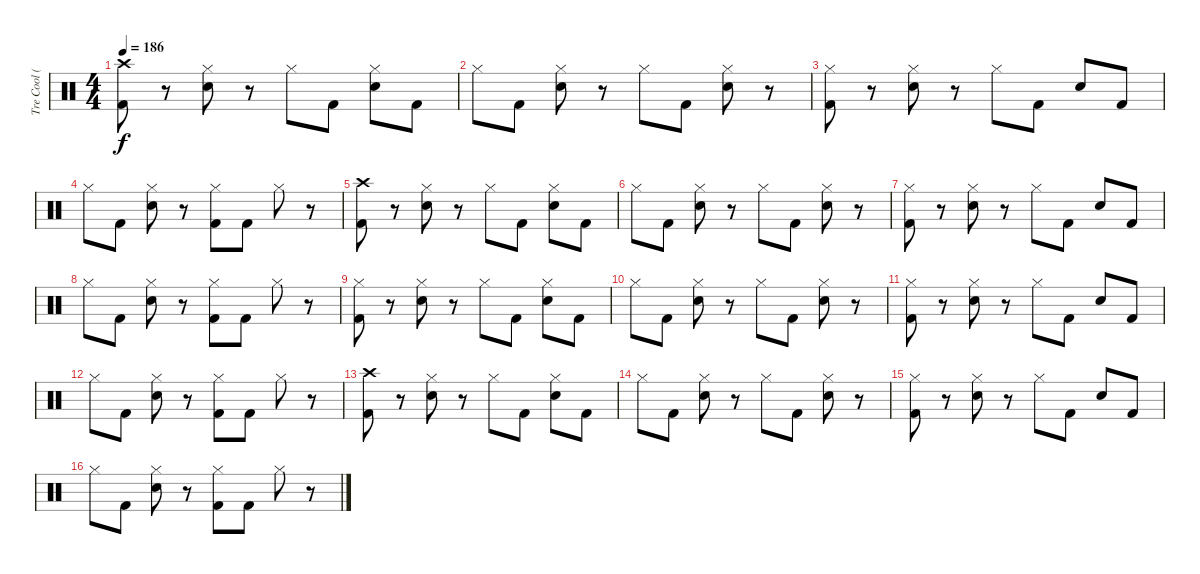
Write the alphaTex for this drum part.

\track ("Tre Cool (Drums)" "Tre Cool (") {instrument percussion}
\staff {score}
\articulation defaults
\ts (4 4)
\tempo 186
\clef neutral
\ks c
("Crash high (hit)" "Kick (hit) 2").8{dy f} r.8 ("Hi-Hat (closed)" "Snare (hit) 2").8 r.8 "Hi-Hat (closed)".8 "Kick (hit) 2".8 ("Hi-Hat (closed)" "Snare (hit) 2").8 "Kick (hit) 2".8 |
"Hi-Hat (closed)".8 "Kick (hit) 2".8 ("Hi-Hat (closed)" "Snare (hit) 2").8 r.8 "Hi-Hat (closed)".8 "Kick (hit) 2".8 ("Hi-Hat (closed)" "Snare (hit) 2").8 r.8 |
("Hi-Hat (closed)" "Kick (hit) 2").8 r.8 ("Hi-Hat (closed)" "Snare (hit) 2").8 r.8 "Hi-Hat (closed)".8 "Kick (hit) 2".8 "Snare (hit) 2".8 "Kick (hit) 2".8 |
"Hi-Hat (closed)".8 "Kick (hit) 2".8 ("Hi-Hat (closed)" "Snare (hit) 2").8 r.8 ("Hi-Hat (closed)" "Kick (hit) 2").8 "Kick (hit) 2".8 "Hi-Hat (closed)".8 r.8 |
("Kick (hit) 2" "Crash high (hit)").8 r.8 ("Snare (hit) 2" "Hi-Hat (closed)").8 r.8 "Hi-Hat (closed)".8 "Kick (hit) 2".8 ("Snare (hit) 2" "Hi-Hat (closed)").8 "Kick (hit) 2".8 |
"Hi-Hat (closed)".8 "Kick (hit) 2".8 ("Snare (hit) 2" "Hi-Hat (closed)").8 r.8 "Hi-Hat (closed)".8 "Kick (hit) 2".8 ("Snare (hit) 2" "Hi-Hat (closed)").8 r.8 |
("Kick (hit) 2" "Hi-Hat (closed)").8 r.8 ("Snare (hit) 2" "Hi-Hat (closed)").8 r.8 "Hi-Hat (closed)".8 "Kick (hit) 2".8 "Snare (hit) 2".8 "Kick (hit) 2".8 |
"Hi-Hat (closed)".8 "Kick (hit) 2".8 ("Snare (hit) 2" "Hi-Hat (closed)").8 r.8 ("Kick (hit) 2" "Hi-Hat (closed)").8 "Kick (hit) 2".8 "Hi-Hat (closed)".8 r.8 |
("Hi-Hat (closed)" "Kick (hit) 2").8 r.8 ("Hi-Hat (closed)" "Snare (hit) 2").8 r.8 "Hi-Hat (closed)".8 "Kick (hit) 2".8 ("Hi-Hat (closed)" "Snare (hit) 2").8 "Kick (hit) 2".8 |
"Hi-Hat (closed)".8 "Kick (hit) 2".8 ("Hi-Hat (closed)" "Snare (hit) 2").8 r.8 "Hi-Hat (closed)".8 "Kick (hit) 2".8 ("Hi-Hat (closed)" "Snare (hit) 2").8 r.8 |
("Hi-Hat (closed)" "Kick (hit) 2").8 r.8 ("Hi-Hat (closed)" "Snare (hit) 2").8 r.8 "Hi-Hat (closed)".8 "Kick (hit) 2".8 "Snare (hit) 2".8 "Kick (hit) 2".8 |
"Hi-Hat (closed)".8 "Kick (hit) 2".8 ("Hi-Hat (closed)" "Snare (hit) 2").8 r.8 ("Hi-Hat (closed)" "Kick (hit) 2").8 "Kick (hit) 2".8 "Hi-Hat (closed)".8 r.8 |
("Crash high (hit)" "Kick (hit) 2").8 r.8 ("Hi-Hat (closed)" "Snare (hit) 2").8 r.8 "Hi-Hat (closed)".8 "Kick (hit) 2".8 ("Hi-Hat (closed)" "Snare (hit) 2").8 "Kick (hit) 2".8 |
"Hi-Hat (closed)".8 "Kick (hit) 2".8 ("Hi-Hat (closed)" "Snare (hit) 2").8 r.8 "Hi-Hat (closed)".8 "Kick (hit) 2".8 ("Hi-Hat (closed)" "Snare (hit) 2").8 r.8 |
("Hi-Hat (closed)" "Kick (hit) 2").8 r.8 ("Hi-Hat (closed)" "Snare (hit) 2").8 r.8 "Hi-Hat (closed)".8 "Kick (hit) 2".8 "Snare (hit) 2".8 "Kick (hit) 2".8 |
"Hi-Hat (closed)".8 "Kick (hit) 2".8 ("Hi-Hat (closed)" "Snare (hit) 2").8 r.8 ("Hi-Hat (closed)" "Kick (hit) 2").8 "Kick (hit) 2".8 "Hi-Hat (closed)".8 r.8
